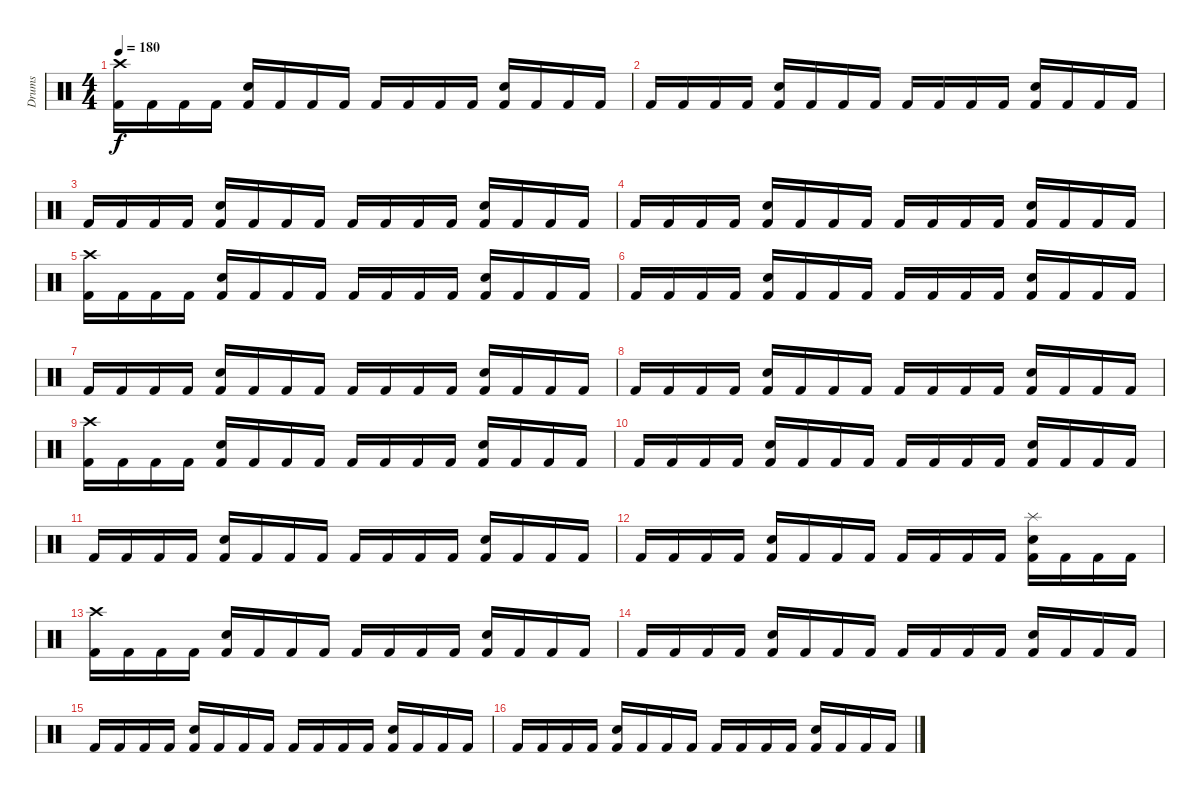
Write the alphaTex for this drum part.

\track ("Drums" "Drums") {instrument percussion}
\staff {score}
\articulation defaults
\ts (4 4)
\tempo 180
\clef neutral
\ks c
("Crash high (hit)" "Kick (hit) 2").16{dy f} "Kick (hit) 2".16 "Kick (hit) 2".16 "Kick (hit) 2".16 ("Snare (hit) 2" "Kick (hit) 2").16 "Kick (hit) 2".16 "Kick (hit) 2".16 "Kick (hit) 2".16 "Kick (hit) 2".16 "Kick (hit) 2".16 "Kick (hit) 2".16 "Kick (hit) 2".16 ("Snare (hit) 2" "Kick (hit) 2").16 "Kick (hit) 2".16 "Kick (hit) 2".16 "Kick (hit) 2".16 |
"Kick (hit) 2".16 "Kick (hit) 2".16 "Kick (hit) 2".16 "Kick (hit) 2".16 ("Snare (hit) 2" "Kick (hit) 2").16 "Kick (hit) 2".16 "Kick (hit) 2".16 "Kick (hit) 2".16 "Kick (hit) 2".16 "Kick (hit) 2".16 "Kick (hit) 2".16 "Kick (hit) 2".16 ("Snare (hit) 2" "Kick (hit) 2").16 "Kick (hit) 2".16 "Kick (hit) 2".16 "Kick (hit) 2".16 |
"Kick (hit) 2".16 "Kick (hit) 2".16 "Kick (hit) 2".16 "Kick (hit) 2".16 ("Snare (hit) 2" "Kick (hit) 2").16 "Kick (hit) 2".16 "Kick (hit) 2".16 "Kick (hit) 2".16 "Kick (hit) 2".16 "Kick (hit) 2".16 "Kick (hit) 2".16 "Kick (hit) 2".16 ("Snare (hit) 2" "Kick (hit) 2").16 "Kick (hit) 2".16 "Kick (hit) 2".16 "Kick (hit) 2".16 |
"Kick (hit) 2".16 "Kick (hit) 2".16 "Kick (hit) 2".16 "Kick (hit) 2".16 ("Snare (hit) 2" "Kick (hit) 2").16 "Kick (hit) 2".16 "Kick (hit) 2".16 "Kick (hit) 2".16 "Kick (hit) 2".16 "Kick (hit) 2".16 "Kick (hit) 2".16 "Kick (hit) 2".16 ("Snare (hit) 2" "Kick (hit) 2").16 "Kick (hit) 2".16 "Kick (hit) 2".16 "Kick (hit) 2".16 |
("Crash high (hit)" "Kick (hit) 2").16 "Kick (hit) 2".16 "Kick (hit) 2".16 "Kick (hit) 2".16 ("Snare (hit) 2" "Kick (hit) 2").16 "Kick (hit) 2".16 "Kick (hit) 2".16 "Kick (hit) 2".16 "Kick (hit) 2".16 "Kick (hit) 2".16 "Kick (hit) 2".16 "Kick (hit) 2".16 ("Snare (hit) 2" "Kick (hit) 2").16 "Kick (hit) 2".16 "Kick (hit) 2".16 "Kick (hit) 2".16 |
"Kick (hit) 2".16 "Kick (hit) 2".16 "Kick (hit) 2".16 "Kick (hit) 2".16 ("Snare (hit) 2" "Kick (hit) 2").16 "Kick (hit) 2".16 "Kick (hit) 2".16 "Kick (hit) 2".16 "Kick (hit) 2".16 "Kick (hit) 2".16 "Kick (hit) 2".16 "Kick (hit) 2".16 ("Snare (hit) 2" "Kick (hit) 2").16 "Kick (hit) 2".16 "Kick (hit) 2".16 "Kick (hit) 2".16 |
"Kick (hit) 2".16 "Kick (hit) 2".16 "Kick (hit) 2".16 "Kick (hit) 2".16 ("Snare (hit) 2" "Kick (hit) 2").16 "Kick (hit) 2".16 "Kick (hit) 2".16 "Kick (hit) 2".16 "Kick (hit) 2".16 "Kick (hit) 2".16 "Kick (hit) 2".16 "Kick (hit) 2".16 ("Snare (hit) 2" "Kick (hit) 2").16 "Kick (hit) 2".16 "Kick (hit) 2".16 "Kick (hit) 2".16 |
"Kick (hit) 2".16 "Kick (hit) 2".16 "Kick (hit) 2".16 "Kick (hit) 2".16 ("Snare (hit) 2" "Kick (hit) 2").16 "Kick (hit) 2".16 "Kick (hit) 2".16 "Kick (hit) 2".16 "Kick (hit) 2".16 "Kick (hit) 2".16 "Kick (hit) 2".16 "Kick (hit) 2".16 ("Snare (hit) 2" "Kick (hit) 2").16 "Kick (hit) 2".16 "Kick (hit) 2".16 "Kick (hit) 2".16 |
("Crash high (hit)" "Kick (hit) 2").16 "Kick (hit) 2".16 "Kick (hit) 2".16 "Kick (hit) 2".16 ("Snare (hit) 2" "Kick (hit) 2").16 "Kick (hit) 2".16 "Kick (hit) 2".16 "Kick (hit) 2".16 "Kick (hit) 2".16 "Kick (hit) 2".16 "Kick (hit) 2".16 "Kick (hit) 2".16 ("Snare (hit) 2" "Kick (hit) 2").16 "Kick (hit) 2".16 "Kick (hit) 2".16 "Kick (hit) 2".16 |
"Kick (hit) 2".16 "Kick (hit) 2".16 "Kick (hit) 2".16 "Kick (hit) 2".16 ("Snare (hit) 2" "Kick (hit) 2").16 "Kick (hit) 2".16 "Kick (hit) 2".16 "Kick (hit) 2".16 "Kick (hit) 2".16 "Kick (hit) 2".16 "Kick (hit) 2".16 "Kick (hit) 2".16 ("Snare (hit) 2" "Kick (hit) 2").16 "Kick (hit) 2".16 "Kick (hit) 2".16 "Kick (hit) 2".16 |
"Kick (hit) 2".16 "Kick (hit) 2".16 "Kick (hit) 2".16 "Kick (hit) 2".16 ("Snare (hit) 2" "Kick (hit) 2").16 "Kick (hit) 2".16 "Kick (hit) 2".16 "Kick (hit) 2".16 "Kick (hit) 2".16 "Kick (hit) 2".16 "Kick (hit) 2".16 "Kick (hit) 2".16 ("Snare (hit) 2" "Kick (hit) 2").16 "Kick (hit) 2".16 "Kick (hit) 2".16 "Kick (hit) 2".16 |
"Kick (hit) 2".16 "Kick (hit) 2".16 "Kick (hit) 2".16 "Kick (hit) 2".16 ("Snare (hit) 2" "Kick (hit) 2").16 "Kick (hit) 2".16 "Kick (hit) 2".16 "Kick (hit) 2".16 "Kick (hit) 2".16 "Kick (hit) 2".16 "Kick (hit) 2".16 "Kick (hit) 2".16 ("Splash (hit)" "Snare (hit) 2" "Kick (hit) 2").16 "Kick (hit) 2".16 "Kick (hit) 2".16 "Kick (hit) 2".16 |
("Crash high (hit)" "Kick (hit) 2").16 "Kick (hit) 2".16 "Kick (hit) 2".16 "Kick (hit) 2".16 ("Snare (hit) 2" "Kick (hit) 2").16 "Kick (hit) 2".16 "Kick (hit) 2".16 "Kick (hit) 2".16 "Kick (hit) 2".16 "Kick (hit) 2".16 "Kick (hit) 2".16 "Kick (hit) 2".16 ("Snare (hit) 2" "Kick (hit) 2").16 "Kick (hit) 2".16 "Kick (hit) 2".16 "Kick (hit) 2".16 |
"Kick (hit) 2".16 "Kick (hit) 2".16 "Kick (hit) 2".16 "Kick (hit) 2".16 ("Snare (hit) 2" "Kick (hit) 2").16 "Kick (hit) 2".16 "Kick (hit) 2".16 "Kick (hit) 2".16 "Kick (hit) 2".16 "Kick (hit) 2".16 "Kick (hit) 2".16 "Kick (hit) 2".16 ("Snare (hit) 2" "Kick (hit) 2").16 "Kick (hit) 2".16 "Kick (hit) 2".16 "Kick (hit) 2".16 |
"Kick (hit) 2".16 "Kick (hit) 2".16 "Kick (hit) 2".16 "Kick (hit) 2".16 ("Snare (hit) 2" "Kick (hit) 2").16 "Kick (hit) 2".16 "Kick (hit) 2".16 "Kick (hit) 2".16 "Kick (hit) 2".16 "Kick (hit) 2".16 "Kick (hit) 2".16 "Kick (hit) 2".16 ("Snare (hit) 2" "Kick (hit) 2").16 "Kick (hit) 2".16 "Kick (hit) 2".16 "Kick (hit) 2".16 |
"Kick (hit) 2".16 "Kick (hit) 2".16 "Kick (hit) 2".16 "Kick (hit) 2".16 ("Snare (hit) 2" "Kick (hit) 2").16 "Kick (hit) 2".16 "Kick (hit) 2".16 "Kick (hit) 2".16 "Kick (hit) 2".16 "Kick (hit) 2".16 "Kick (hit) 2".16 "Kick (hit) 2".16 ("Snare (hit) 2" "Kick (hit) 2").16 "Kick (hit) 2".16 "Kick (hit) 2".16 "Kick (hit) 2".16
